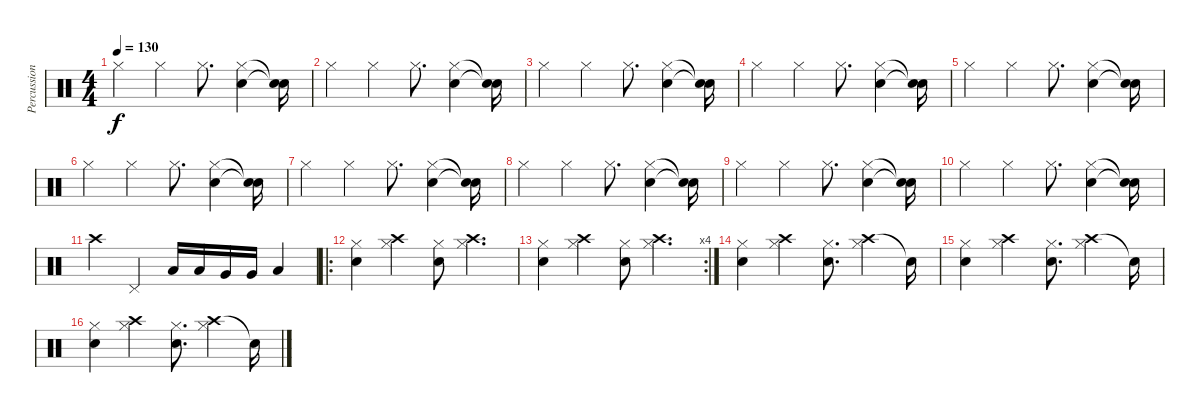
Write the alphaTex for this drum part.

\track ("Percussion" "Percussion") {instrument percussion}
\staff {score}
\articulation defaults
\ts (4 4)
\tempo 130
\clef neutral
\ks c "Hi-Hat (closed)".4{dy f} "Hi-Hat (closed)".4 "Hi-Hat (closed)".8{d}
("Hi-Hat (closed)" "Snare (hit) 2").4 ("Snare (hit)"{t} "Snare (hit)"{t}).16 |
"Hi-Hat (closed)".4 "Hi-Hat (closed)".4 "Hi-Hat (closed)".8{d} ("Hi-Hat (closed)" "Snare (hit) 2").4 ("Snare (hit)"{t} "Snare (hit)"{t}).16 |
"Hi-Hat (closed)".4 "Hi-Hat (closed)".4 "Hi-Hat (closed)".8{d} ("Hi-Hat (closed)" "Snare (hit) 2").4 ("Snare (hit)"{t} "Snare (hit)"{t}).16 |
"Hi-Hat (closed)".4 "Hi-Hat (closed)".4 "Hi-Hat (closed)".8{d} ("Hi-Hat (closed)" "Snare (hit) 2").4 ("Snare (hit)"{t} "Snare (hit)"{t}).16 |
"Hi-Hat (closed)".4 "Hi-Hat (closed)".4 "Hi-Hat (closed)".8{d} ("Hi-Hat (closed)" "Snare (hit) 2").4 ("Snare (hit)"{t} "Snare (hit)"{t}).16 |
"Hi-Hat (closed)".4 "Hi-Hat (closed)".4 "Hi-Hat (closed)".8{d} ("Hi-Hat (closed)" "Snare (hit) 2").4 ("Snare (hit)"{t} "Snare (hit)"{t}).16 |
"Hi-Hat (closed)".4 "Hi-Hat (closed)".4 "Hi-Hat (closed)".8{d} ("Hi-Hat (closed)" "Snare (hit) 2").4 ("Snare (hit)"{t} "Snare (hit)"{t}).16 |
"Hi-Hat (closed)".4 "Hi-Hat (closed)".4 "Hi-Hat (closed)".8{d} ("Hi-Hat (closed)" "Snare (hit) 2").4 ("Snare (hit)"{t} "Snare (hit)"{t}).16 |
"Hi-Hat (closed)".4 "Hi-Hat (closed)".4 "Hi-Hat (closed)".8{d} ("Hi-Hat (closed)" "Snare (hit) 2").4 ("Snare (hit)"{t} "Snare (hit)"{t}).16 |
"Hi-Hat (closed)".4 "Hi-Hat (closed)".4 "Hi-Hat (closed)".8{d} ("Hi-Hat (closed)" "Snare (hit) 2").4 ("Snare (hit)"{t} "Snare (hit)"{t}).16 |
"Crash high (hit)".4 "Pedal Hi-Hat (hit)".4 "Low Tom (hit)".16 "Low Tom (hit)".16 "Very Low Tom (hit)".16 "Very Low Tom (hit)".16 "Low Floor Tom (hit)".4 |
\ro
("Snare (hit) 2" "Hi-Hat (closed)").4{volume 13} ("Crash high (hit)" "Hi-Hat (closed)").4 ("Snare (hit) 2" "Hi-Hat (closed)").8 ("Crash high (hit)" "Hi-Hat (closed)").4{d} |
\rc 4
("Snare (hit) 2" "Hi-Hat (closed)").4 ("Crash high (hit)" "Hi-Hat (closed)").4 ("Snare (hit) 2" "Hi-Hat (closed)").8 ("Crash high (hit)" "Hi-Hat (closed)").4{d} |
("Snare (hit) 2" "Hi-Hat (closed)").4{volume 13} ("Crash high (hit)" "Hi-Hat (closed)").4 ("Snare (hit) 2" "Hi-Hat (closed)").8{d} ("Crash high (hit)" "Hi-Hat (closed)").4 "Snare (hit)"{t}.16 |
("Snare (hit) 2" "Hi-Hat (closed)").4{volume 13} ("Crash high (hit)" "Hi-Hat (closed)").4 ("Snare (hit) 2" "Hi-Hat (closed)").8{d} ("Crash high (hit)" "Hi-Hat (closed)").4 "Snare (hit)"{t}.16 |
("Snare (hit) 2" "Hi-Hat (closed)").4{volume 13} ("Crash high (hit)" "Hi-Hat (closed)").4 ("Snare (hit) 2" "Hi-Hat (closed)").8{d} ("Crash high (hit)" "Hi-Hat (closed)").4 "Snare (hit)"{t}.16
